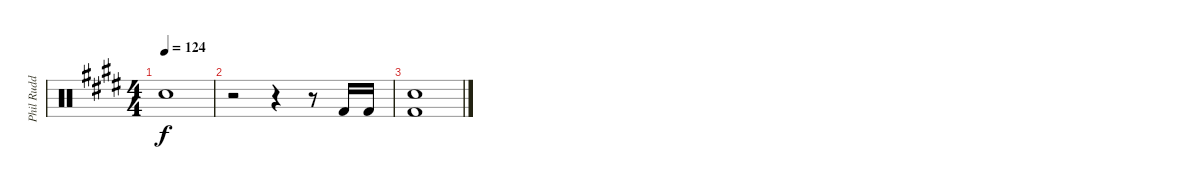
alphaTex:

\track ("Phil Rudd (Drums)" "Phil Rudd ") {instrument percussion}
\staff {score}
\articulation defaults
\ts (4 4)
\tempo 124
\clef neutral
\ks e "Snare (hit)"{t}.1{dy f}
|
r.2 r.4 r.8 "Kick (hit) 2".16 "Kick (hit) 2".16 |
("Snare (hit) 2" "Kick (hit) 2").1
